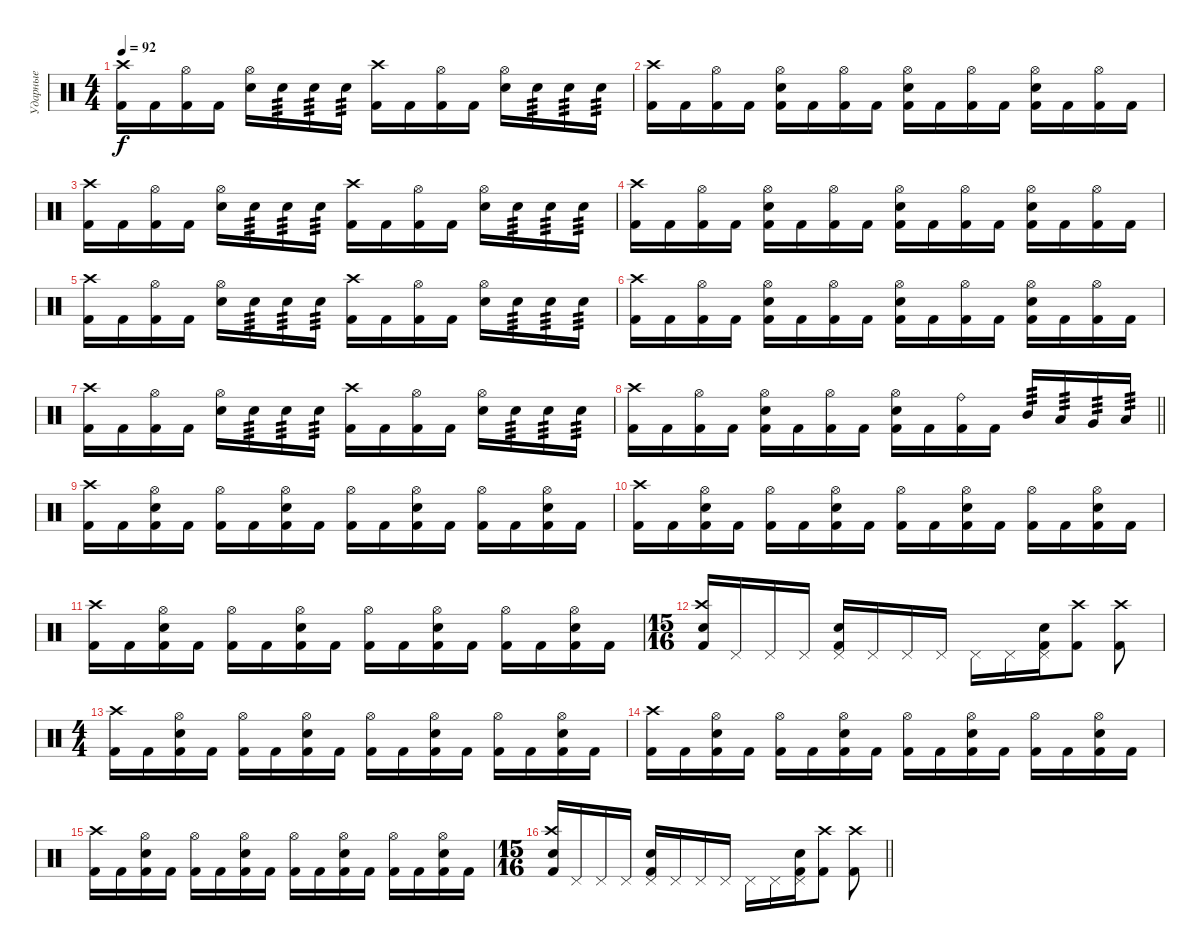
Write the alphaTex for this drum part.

\track ("Ударные" "Ударные") {instrument percussion}
\staff {score}
\articulation defaults
\ts (4 4)
\section ("" "")
\tempo 92
\clef neutral
\ks c
("Kick (hit) 2" "Crash high (hit)").16{dy f} "Kick (hit) 2".16 ("Kick (hit) 2" "Hi-Hat (open)").16 "Kick (hit) 2".16 ("Electric Snare (hit)" "Hi-Hat (open)").16 "Electric Snare (hit)".16{tp 3} "Electric Snare (hit)".16{tp 3} "Electric Snare (hit)".16{tp 3} ("Kick (hit) 2" "Crash high (hit)").16 "Kick (hit) 2".16 ("Kick (hit) 2" "Hi-Hat (open)").16 "Kick (hit) 2".16 ("Electric Snare (hit)" "Hi-Hat (open)").16 "Electric Snare (hit)".16{tp 3} "Electric Snare (hit)".16{tp 3} "Electric Snare (hit)".16{tp 3} |
("Kick (hit) 2" "Crash high (hit)").16 "Kick (hit) 2".16 ("Kick (hit) 2" "Hi-Hat (open)").16 "Kick (hit) 2".16 ("Kick (hit) 2" "Hi-Hat (open)" "Electric Snare (hit)").16 "Kick (hit) 2".16 ("Kick (hit) 2" "Hi-Hat (open)").16 "Kick (hit) 2".16 ("Kick (hit) 2" "Hi-Hat (open)" "Electric Snare (hit)").16 "Kick (hit) 2".16 ("Kick (hit) 2" "Hi-Hat (open)").16 "Kick (hit) 2".16 ("Kick (hit) 2" "Hi-Hat (open)" "Electric Snare (hit)").16 "Kick (hit) 2".16 ("Kick (hit) 2" "Hi-Hat (open)").16 "Kick (hit) 2".16 |
("Kick (hit) 2" "Crash high (hit)").16 "Kick (hit) 2".16 ("Kick (hit) 2" "Hi-Hat (open)").16 "Kick (hit) 2".16 ("Electric Snare (hit)" "Hi-Hat (open)").16 "Electric Snare (hit)".16{tp 3} "Electric Snare (hit)".16{tp 3} "Electric Snare (hit)".16{tp 3} ("Kick (hit) 2" "Crash high (hit)").16 "Kick (hit) 2".16 ("Kick (hit) 2" "Hi-Hat (open)").16 "Kick (hit) 2".16 ("Electric Snare (hit)" "Hi-Hat (open)").16 "Electric Snare (hit)".16{tp 3} "Electric Snare (hit)".16{tp 3} "Electric Snare (hit)".16{tp 3} |
("Kick (hit) 2" "Crash high (hit)").16 "Kick (hit) 2".16 ("Kick (hit) 2" "Hi-Hat (open)").16 "Kick (hit) 2".16 ("Kick (hit) 2" "Hi-Hat (open)" "Electric Snare (hit)").16 "Kick (hit) 2".16 ("Kick (hit) 2" "Hi-Hat (open)").16 "Kick (hit) 2".16 ("Kick (hit) 2" "Hi-Hat (open)" "Electric Snare (hit)").16 "Kick (hit) 2".16 ("Kick (hit) 2" "Hi-Hat (open)").16 "Kick (hit) 2".16 ("Kick (hit) 2" "Hi-Hat (open)" "Electric Snare (hit)").16 "Kick (hit) 2".16 ("Kick (hit) 2" "Hi-Hat (open)").16 "Kick (hit) 2".16 |
("Kick (hit) 2" "Crash high (hit)").16 "Kick (hit) 2".16 ("Kick (hit) 2" "Hi-Hat (open)").16 "Kick (hit) 2".16 ("Electric Snare (hit)" "Hi-Hat (open)").16 "Electric Snare (hit)".16{tp 3} "Electric Snare (hit)".16{tp 3} "Electric Snare (hit)".16{tp 3} ("Kick (hit) 2" "Crash high (hit)").16 "Kick (hit) 2".16 ("Kick (hit) 2" "Hi-Hat (open)").16 "Kick (hit) 2".16 ("Electric Snare (hit)" "Hi-Hat (open)").16 "Electric Snare (hit)".16{tp 3} "Electric Snare (hit)".16{tp 3} "Electric Snare (hit)".16{tp 3} |
("Kick (hit) 2" "Crash high (hit)").16 "Kick (hit) 2".16 ("Kick (hit) 2" "Hi-Hat (open)").16 "Kick (hit) 2".16 ("Kick (hit) 2" "Hi-Hat (open)" "Electric Snare (hit)").16 "Kick (hit) 2".16 ("Kick (hit) 2" "Hi-Hat (open)").16 "Kick (hit) 2".16 ("Kick (hit) 2" "Hi-Hat (open)" "Electric Snare (hit)").16 "Kick (hit) 2".16 ("Kick (hit) 2" "Hi-Hat (open)").16 "Kick (hit) 2".16 ("Kick (hit) 2" "Hi-Hat (open)" "Electric Snare (hit)").16 "Kick (hit) 2".16 ("Kick (hit) 2" "Hi-Hat (open)").16 "Kick (hit) 2".16 |
("Kick (hit) 2" "Crash high (hit)").16 "Kick (hit) 2".16 ("Kick (hit) 2" "Hi-Hat (open)").16 "Kick (hit) 2".16 ("Electric Snare (hit)" "Hi-Hat (open)").16 "Electric Snare (hit)".16{tp 3} "Electric Snare (hit)".16{tp 3} "Electric Snare (hit)".16{tp 3} ("Kick (hit) 2" "Crash high (hit)").16 "Kick (hit) 2".16 ("Kick (hit) 2" "Hi-Hat (open)").16 "Kick (hit) 2".16 ("Electric Snare (hit)" "Hi-Hat (open)").16 "Electric Snare (hit)".16{tp 3} "Electric Snare (hit)".16{tp 3} "Electric Snare (hit)".16{tp 3} |
\barLineRight lightlight
("Kick (hit) 2" "Crash high (hit)").16 "Kick (hit) 2".16 ("Kick (hit) 2" "Hi-Hat (open)").16 "Kick (hit) 2".16 ("Kick (hit) 2" "Hi-Hat (open)" "Electric Snare (hit)").16 "Kick (hit) 2".16 ("Kick (hit) 2" "Hi-Hat (open)").16 "Kick (hit) 2".16 ("Kick (hit) 2" "Hi-Hat (open)" "Electric Snare (hit)").16 "Kick (hit) 2".16 ("Kick (hit) 2" "Ride (bell)").16 "Kick (hit) 2".16 "Mid Tom (hit)".16{tp 3} "Low Tom (hit)".16{tp 3} "Very Low Tom (hit)".16{tp 3} "Low Floor Tom (hit)".16{tp 3} |
\section ("" "")
("Kick (hit) 2" "Crash high (hit)").16 "Kick (hit) 2".16 ("Kick (hit) 2" "Hi-Hat (open)" "Electric Snare (hit)").16 "Kick (hit) 2".16 ("Kick (hit) 2" "Hi-Hat (open)").16 "Kick (hit) 2".16 ("Kick (hit) 2" "Hi-Hat (open)" "Electric Snare (hit)").16 "Kick (hit) 2".16 ("Kick (hit) 2" "Hi-Hat (open)").16 "Kick (hit) 2".16 ("Kick (hit) 2" "Hi-Hat (open)" "Electric Snare (hit)").16 "Kick (hit) 2".16 ("Kick (hit) 2" "Hi-Hat (open)").16 "Kick (hit) 2".16 ("Kick (hit) 2" "Hi-Hat (open)" "Electric Snare (hit)").16 "Kick (hit) 2".16 |
("Kick (hit) 2" "Crash high (hit)").16 "Kick (hit) 2".16 ("Kick (hit) 2" "Hi-Hat (open)" "Electric Snare (hit)").16 "Kick (hit) 2".16 ("Kick (hit) 2" "Hi-Hat (open)").16 "Kick (hit) 2".16 ("Kick (hit) 2" "Hi-Hat (open)" "Electric Snare (hit)").16 "Kick (hit) 2".16 ("Kick (hit) 2" "Hi-Hat (open)").16 "Kick (hit) 2".16 ("Kick (hit) 2" "Hi-Hat (open)" "Electric Snare (hit)").16 "Kick (hit) 2".16 ("Kick (hit) 2" "Hi-Hat (open)").16 "Kick (hit) 2".16 ("Kick (hit) 2" "Hi-Hat (open)" "Electric Snare (hit)").16 "Kick (hit) 2".16 |
("Kick (hit) 2" "Crash high (hit)").16 "Kick (hit) 2".16 ("Kick (hit) 2" "Hi-Hat (open)" "Electric Snare (hit)").16 "Kick (hit) 2".16 ("Kick (hit) 2" "Hi-Hat (open)").16 "Kick (hit) 2".16 ("Kick (hit) 2" "Hi-Hat (open)" "Electric Snare (hit)").16 "Kick (hit) 2".16 ("Kick (hit) 2" "Hi-Hat (open)").16 "Kick (hit) 2".16 ("Kick (hit) 2" "Hi-Hat (open)" "Electric Snare (hit)").16 "Kick (hit) 2".16 ("Kick (hit) 2" "Hi-Hat (open)").16 "Kick (hit) 2".16 ("Kick (hit) 2" "Hi-Hat (open)" "Electric Snare (hit)").16 "Kick (hit) 2".16 |
\ts (15 16)
("Crash high (hit)" "Kick (hit) 2" "Electric Snare (hit)").16 "Pedal Hi-Hat (hit)".16 "Pedal Hi-Hat (hit)".16 "Pedal Hi-Hat (hit)".16 ("Pedal Hi-Hat (hit)" "Kick (hit) 2" "Electric Snare (hit)").16 "Pedal Hi-Hat (hit)".16 "Pedal Hi-Hat (hit)".16 "Pedal Hi-Hat (hit)".16 "Pedal Hi-Hat (hit)".16 "Pedal Hi-Hat (hit)".16 ("Pedal Hi-Hat (hit)" "Kick (hit) 2" "Electric Snare (hit)").16 ("Crash high (hit)" "Kick (hit) 2").8 ("Crash high (hit)" "Kick (hit) 2").8 |
\ts (4 4)
("Kick (hit) 2" "Crash high (hit)").16 "Kick (hit) 2".16 ("Kick (hit) 2" "Hi-Hat (open)" "Electric Snare (hit)").16 "Kick (hit) 2".16 ("Kick (hit) 2" "Hi-Hat (open)").16 "Kick (hit) 2".16 ("Kick (hit) 2" "Hi-Hat (open)" "Electric Snare (hit)").16 "Kick (hit) 2".16 ("Kick (hit) 2" "Hi-Hat (open)").16 "Kick (hit) 2".16 ("Kick (hit) 2" "Hi-Hat (open)" "Electric Snare (hit)").16 "Kick (hit) 2".16 ("Kick (hit) 2" "Hi-Hat (open)").16 "Kick (hit) 2".16 ("Kick (hit) 2" "Hi-Hat (open)" "Electric Snare (hit)").16 "Kick (hit) 2".16 |
("Kick (hit) 2" "Crash high (hit)").16 "Kick (hit) 2".16 ("Kick (hit) 2" "Hi-Hat (open)" "Electric Snare (hit)").16 "Kick (hit) 2".16 ("Kick (hit) 2" "Hi-Hat (open)").16 "Kick (hit) 2".16 ("Kick (hit) 2" "Hi-Hat (open)" "Electric Snare (hit)").16 "Kick (hit) 2".16 ("Kick (hit) 2" "Hi-Hat (open)").16 "Kick (hit) 2".16 ("Kick (hit) 2" "Hi-Hat (open)" "Electric Snare (hit)").16 "Kick (hit) 2".16 ("Kick (hit) 2" "Hi-Hat (open)").16 "Kick (hit) 2".16 ("Kick (hit) 2" "Hi-Hat (open)" "Electric Snare (hit)").16 "Kick (hit) 2".16 |
("Kick (hit) 2" "Crash high (hit)").16 "Kick (hit) 2".16 ("Kick (hit) 2" "Hi-Hat (open)" "Electric Snare (hit)").16 "Kick (hit) 2".16 ("Kick (hit) 2" "Hi-Hat (open)").16 "Kick (hit) 2".16 ("Kick (hit) 2" "Hi-Hat (open)" "Electric Snare (hit)").16 "Kick (hit) 2".16 ("Kick (hit) 2" "Hi-Hat (open)").16 "Kick (hit) 2".16 ("Kick (hit) 2" "Hi-Hat (open)" "Electric Snare (hit)").16 "Kick (hit) 2".16 ("Kick (hit) 2" "Hi-Hat (open)").16 "Kick (hit) 2".16 ("Kick (hit) 2" "Hi-Hat (open)" "Electric Snare (hit)").16 "Kick (hit) 2".16 |
\ts (15 16)
\barLineRight lightlight
("Crash high (hit)" "Kick (hit) 2" "Electric Snare (hit)").16 "Pedal Hi-Hat (hit)".16 "Pedal Hi-Hat (hit)".16 "Pedal Hi-Hat (hit)".16 ("Pedal Hi-Hat (hit)" "Kick (hit) 2" "Electric Snare (hit)").16 "Pedal Hi-Hat (hit)".16 "Pedal Hi-Hat (hit)".16 "Pedal Hi-Hat (hit)".16 "Pedal Hi-Hat (hit)".16 "Pedal Hi-Hat (hit)".16 ("Pedal Hi-Hat (hit)" "Kick (hit) 2" "Electric Snare (hit)").16 ("Crash high (hit)" "Kick (hit) 2").8 ("Crash high (hit)" "Kick (hit) 2").8
